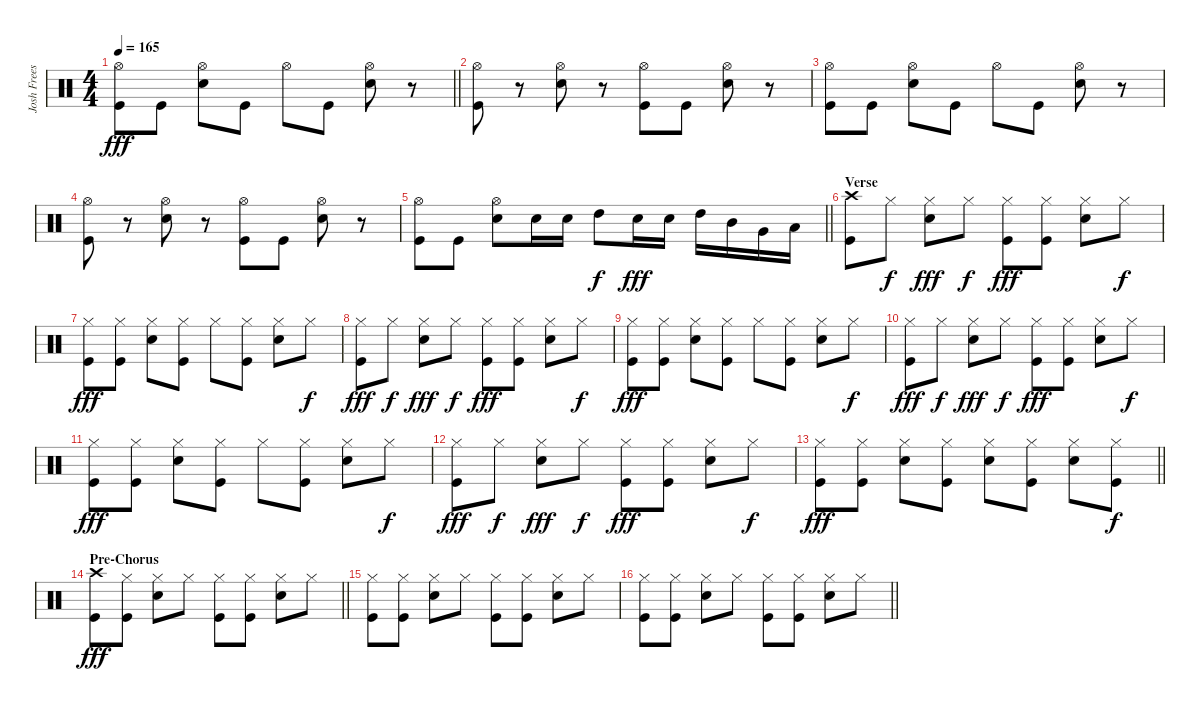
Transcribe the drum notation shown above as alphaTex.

\track ("Josh Freese" "Josh Frees") {instrument percussion}
\staff {score}
\articulation defaults
\ts (4 4)
\tempo 165
\clef neutral
\barLineRight lightlight
\ks c
("Hi-Hat (open)" "Kick (hit)").8{dy fff} "Kick (hit)".8 ("Hi-Hat (open)" "Electric Snare (hit)").8 "Kick (hit)".8 "Hi-Hat (open)".8 "Kick (hit)".8 ("Hi-Hat (open)" "Electric Snare (hit)").8 r.8 |
("Hi-Hat (open)" "Kick (hit)").8 r.8 ("Hi-Hat (open)" "Electric Snare (hit)").8 r.8 ("Hi-Hat (open)" "Kick (hit)").8 "Kick (hit)".8 ("Hi-Hat (open)" "Electric Snare (hit)").8 r.8 |
("Hi-Hat (open)" "Kick (hit)").8 "Kick (hit)".8 ("Hi-Hat (open)" "Electric Snare (hit)").8 "Kick (hit)".8 "Hi-Hat (open)".8 "Kick (hit)".8 ("Hi-Hat (open)" "Electric Snare (hit)").8 r.8 |
("Hi-Hat (open)" "Kick (hit)").8 r.8 ("Hi-Hat (open)" "Electric Snare (hit)").8 r.8 ("Hi-Hat (open)" "Kick (hit)").8 "Kick (hit)".8 ("Hi-Hat (open)" "Electric Snare (hit)").8 r.8 |
\barLineRight lightlight
("Hi-Hat (open)" "Kick (hit)").8 "Kick (hit)".8 ("Hi-Hat (open)" "Electric Snare (hit)").8 "Electric Snare (hit)".16 "Electric Snare (hit)".16 "High Tom (hit)".8{dy f} "Electric Snare (hit)".16{dy fff} "Electric Snare (hit)".16 "High Tom (hit)".16 "Mid Tom (hit)".16 "Very Low Tom (hit)".16 "Low Floor Tom (hit)".16 |
\section ("" "Verse")
("Crash high (hit)" "Kick (hit)").8 "Hi-Hat (closed)".8{dy f} ("Hi-Hat (closed)" "Electric Snare (hit)").8{dy fff} "Hi-Hat (closed)".8{dy f} ("Hi-Hat (closed)" "Kick (hit)").8{dy fff} ("Hi-Hat (closed)" "Kick (hit)").8 ("Hi-Hat (closed)" "Electric Snare (hit)").8 "Hi-Hat (closed)".8{dy f} |
("Hi-Hat (closed)" "Kick (hit)").8{dy fff} ("Hi-Hat (closed)" "Kick (hit)").8 ("Hi-Hat (closed)" "Electric Snare (hit)").8 ("Hi-Hat (closed)" "Kick (hit)").8 "Hi-Hat (closed)".8 ("Hi-Hat (closed)" "Kick (hit)").8 ("Hi-Hat (closed)" "Electric Snare (hit)").8 "Hi-Hat (closed)".8{dy f} |
("Hi-Hat (closed)" "Kick (hit)").8{dy fff} "Hi-Hat (closed)".8{dy f} ("Hi-Hat (closed)" "Electric Snare (hit)").8{dy fff} "Hi-Hat (closed)".8{dy f} ("Hi-Hat (closed)" "Kick (hit)").8{dy fff} ("Hi-Hat (closed)" "Kick (hit)").8 ("Hi-Hat (closed)" "Electric Snare (hit)").8 "Hi-Hat (closed)".8{dy f} |
("Hi-Hat (closed)" "Kick (hit)").8{dy fff} ("Hi-Hat (closed)" "Kick (hit)").8 ("Hi-Hat (closed)" "Electric Snare (hit)").8 ("Hi-Hat (closed)" "Kick (hit)").8 "Hi-Hat (closed)".8 ("Hi-Hat (closed)" "Kick (hit)").8 ("Hi-Hat (closed)" "Electric Snare (hit)").8 "Hi-Hat (closed)".8{dy f} |
("Hi-Hat (closed)" "Kick (hit)").8{dy fff} "Hi-Hat (closed)".8{dy f} ("Hi-Hat (closed)" "Electric Snare (hit)").8{dy fff} "Hi-Hat (closed)".8{dy f} ("Hi-Hat (closed)" "Kick (hit)").8{dy fff} ("Hi-Hat (closed)" "Kick (hit)").8 ("Hi-Hat (closed)" "Electric Snare (hit)").8 "Hi-Hat (closed)".8{dy f} |
("Hi-Hat (closed)" "Kick (hit)").8{dy fff} ("Hi-Hat (closed)" "Kick (hit)").8 ("Hi-Hat (closed)" "Electric Snare (hit)").8 ("Hi-Hat (closed)" "Kick (hit)").8 "Hi-Hat (closed)".8 ("Hi-Hat (closed)" "Kick (hit)").8 ("Hi-Hat (closed)" "Electric Snare (hit)").8 "Hi-Hat (closed)".8{dy f} |
("Hi-Hat (closed)" "Kick (hit)").8{dy fff} "Hi-Hat (closed)".8{dy f} ("Hi-Hat (closed)" "Electric Snare (hit)").8{dy fff} "Hi-Hat (closed)".8{dy f} ("Hi-Hat (closed)" "Kick (hit)").8{dy fff} ("Hi-Hat (closed)" "Kick (hit)").8 ("Hi-Hat (closed)" "Electric Snare (hit)").8 "Hi-Hat (closed)".8{dy f} |
\barLineRight lightlight
("Hi-Hat (closed)" "Kick (hit)").8{dy fff} ("Hi-Hat (closed)" "Kick (hit)").8 ("Hi-Hat (closed)" "Electric Snare (hit)").8 ("Hi-Hat (closed)" "Kick (hit)").8 ("Hi-Hat (closed)" "Electric Snare (hit)").8 ("Hi-Hat (closed)" "Kick (hit)").8 ("Hi-Hat (closed)" "Electric Snare (hit)").8 ("Hi-Hat (closed)" "Kick (hit)").8{dy f} |
\section ("" "Pre-Chorus")
\barLineRight lightlight
("Crash high (hit)" "Kick (hit)").8{dy fff} ("Hi-Hat (closed)" "Kick (hit)").8 ("Hi-Hat (closed)" "Electric Snare (hit)").8 "Hi-Hat (closed)".8 ("Hi-Hat (closed)" "Kick (hit)").8 ("Hi-Hat (closed)" "Kick (hit)").8 ("Hi-Hat (closed)" "Electric Snare (hit)").8 "Hi-Hat (closed)".8 |
("Hi-Hat (closed)" "Kick (hit)").8 ("Hi-Hat (closed)" "Kick (hit)").8 ("Hi-Hat (closed)" "Electric Snare (hit)").8 "Hi-Hat (closed)".8 ("Hi-Hat (closed)" "Kick (hit)").8 ("Hi-Hat (closed)" "Kick (hit)").8 ("Hi-Hat (closed)" "Electric Snare (hit)").8 "Hi-Hat (closed)".8 |
\barLineRight lightlight
("Hi-Hat (closed)" "Kick (hit)").8 ("Hi-Hat (closed)" "Kick (hit)").8 ("Hi-Hat (closed)" "Electric Snare (hit)").8 "Hi-Hat (closed)".8 ("Hi-Hat (closed)" "Kick (hit)").8 ("Hi-Hat (closed)" "Kick (hit)").8 ("Hi-Hat (closed)" "Electric Snare (hit)").8 "Hi-Hat (closed)".8
